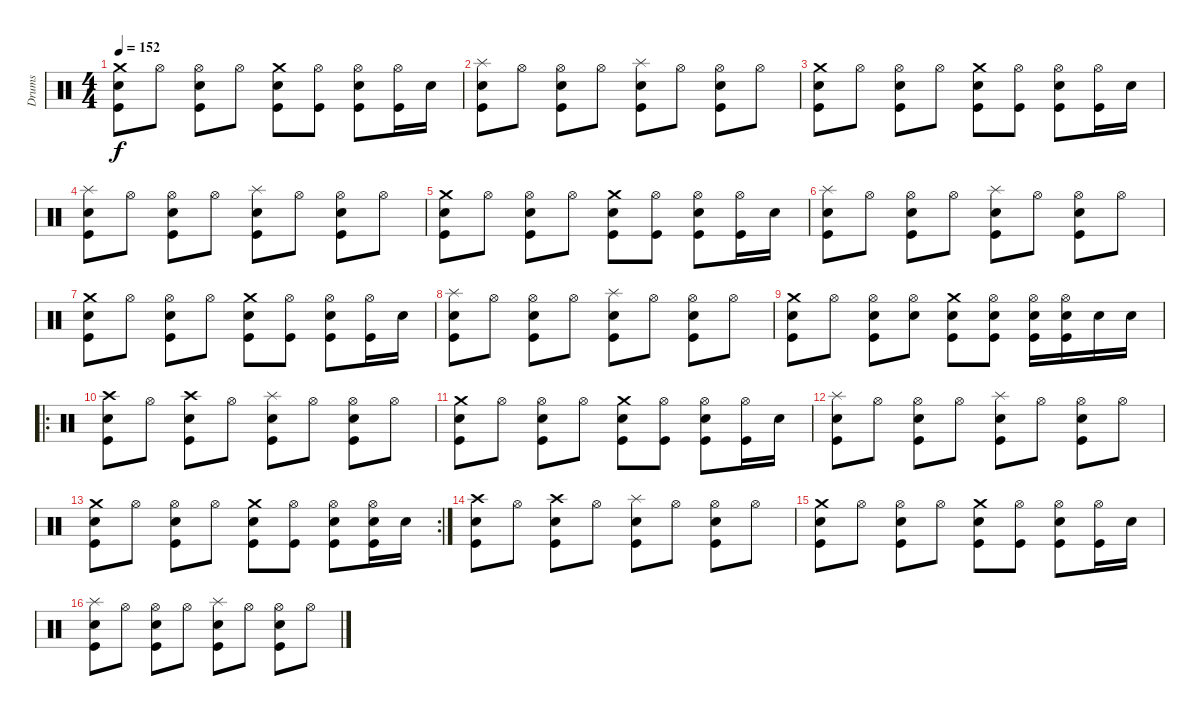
\track ("Drums" "Drums") {instrument percussion}
\staff {score}
\articulation defaults
\ts (4 4)
\tempo 152
\clef neutral
\ks c
("Crash medium (hit)" "Electric Snare (hit)" "Kick (hit)").8{dy f} "Hi-Hat (open)".8 ("Hi-Hat (open)" "Electric Snare (hit)" "Kick (hit)").8 "Hi-Hat (open)".8 ("Crash medium (hit)" "Electric Snare (hit)" "Kick (hit)").8 ("Hi-Hat (open)" "Kick (hit)").8 ("Hi-Hat (open)" "Electric Snare (hit)" "Kick (hit)").8 ("Hi-Hat (open)" "Kick (hit)").16 "Electric Snare (hit)".16 |
("Splash (hit)" "Electric Snare (hit)" "Kick (hit)").8 "Hi-Hat (open)".8 ("Hi-Hat (open)" "Electric Snare (hit)" "Kick (hit)").8 "Hi-Hat (open)".8 ("Splash (hit)" "Electric Snare (hit)" "Kick (hit)").8 "Hi-Hat (open)".8 ("Hi-Hat (open)" "Electric Snare (hit)" "Kick (hit)").8 "Hi-Hat (open)".8 |
("Crash medium (hit)" "Electric Snare (hit)" "Kick (hit)").8 "Hi-Hat (open)".8 ("Hi-Hat (open)" "Electric Snare (hit)" "Kick (hit)").8 "Hi-Hat (open)".8 ("Crash medium (hit)" "Electric Snare (hit)" "Kick (hit)").8 ("Hi-Hat (open)" "Kick (hit)").8 ("Hi-Hat (open)" "Electric Snare (hit)" "Kick (hit)").8 ("Hi-Hat (open)" "Kick (hit)").16 "Electric Snare (hit)".16 |
("Splash (hit)" "Electric Snare (hit)" "Kick (hit)").8 "Hi-Hat (open)".8 ("Hi-Hat (open)" "Electric Snare (hit)" "Kick (hit)").8 "Hi-Hat (open)".8 ("Splash (hit)" "Electric Snare (hit)" "Kick (hit)").8 "Hi-Hat (open)".8 ("Hi-Hat (open)" "Electric Snare (hit)" "Kick (hit)").8 "Hi-Hat (open)".8 |
("Crash medium (hit)" "Electric Snare (hit)" "Kick (hit)").8 "Hi-Hat (open)".8 ("Hi-Hat (open)" "Electric Snare (hit)" "Kick (hit)").8 "Hi-Hat (open)".8 ("Crash medium (hit)" "Electric Snare (hit)" "Kick (hit)").8 ("Hi-Hat (open)" "Kick (hit)").8 ("Hi-Hat (open)" "Electric Snare (hit)" "Kick (hit)").8 ("Hi-Hat (open)" "Kick (hit)").16 "Electric Snare (hit)".16 |
("Splash (hit)" "Electric Snare (hit)" "Kick (hit)").8 "Hi-Hat (open)".8 ("Hi-Hat (open)" "Electric Snare (hit)" "Kick (hit)").8 "Hi-Hat (open)".8 ("Splash (hit)" "Electric Snare (hit)" "Kick (hit)").8 "Hi-Hat (open)".8 ("Hi-Hat (open)" "Electric Snare (hit)" "Kick (hit)").8 "Hi-Hat (open)".8 |
("Crash medium (hit)" "Electric Snare (hit)" "Kick (hit)").8 "Hi-Hat (open)".8 ("Hi-Hat (open)" "Electric Snare (hit)" "Kick (hit)").8 "Hi-Hat (open)".8 ("Crash medium (hit)" "Electric Snare (hit)" "Kick (hit)").8 ("Hi-Hat (open)" "Kick (hit)").8 ("Hi-Hat (open)" "Electric Snare (hit)" "Kick (hit)").8 ("Hi-Hat (open)" "Kick (hit)").16 "Electric Snare (hit)".16 |
("Splash (hit)" "Electric Snare (hit)" "Kick (hit)").8 "Hi-Hat (open)".8 ("Hi-Hat (open)" "Electric Snare (hit)" "Kick (hit)").8 "Hi-Hat (open)".8 ("Splash (hit)" "Electric Snare (hit)" "Kick (hit)").8 "Hi-Hat (open)".8 ("Hi-Hat (open)" "Electric Snare (hit)" "Kick (hit)").8 "Hi-Hat (open)".8 |
("Crash medium (hit)" "Electric Snare (hit)" "Kick (hit)").8 "Hi-Hat (open)".8 ("Hi-Hat (open)" "Electric Snare (hit)" "Kick (hit)").8 ("Hi-Hat (open)" "Electric Snare (hit)").8 ("Crash medium (hit)" "Electric Snare (hit)" "Kick (hit)").8 ("Hi-Hat (open)" "Electric Snare (hit)" "Kick (hit)").8 ("Hi-Hat (open)" "Electric Snare (hit)" "Kick (hit)").16 ("Hi-Hat (open)" "Electric Snare (hit)" "Kick (hit)").16 "Electric Snare (hit)".16 "Electric Snare (hit)".16 |
\ro
("Crash high (hit)" "Electric Snare (hit)" "Kick (hit)").8 "Hi-Hat (open)".8 ("Crash high (hit)" "Electric Snare (hit)" "Kick (hit)").8 "Hi-Hat (open)".8 ("Splash (hit)" "Electric Snare (hit)" "Kick (hit)").8 "Hi-Hat (open)".8 ("Hi-Hat (open)" "Electric Snare (hit)" "Kick (hit)").8 "Hi-Hat (open)".8 |
("Crash medium (hit)" "Electric Snare (hit)" "Kick (hit)").8 "Hi-Hat (open)".8 ("Hi-Hat (open)" "Electric Snare (hit)" "Kick (hit)").8 "Hi-Hat (open)".8 ("Crash medium (hit)" "Electric Snare (hit)" "Kick (hit)").8 ("Hi-Hat (open)" "Kick (hit)").8 ("Hi-Hat (open)" "Electric Snare (hit)" "Kick (hit)").8 ("Hi-Hat (open)" "Kick (hit)").16 "Electric Snare (hit)".16 |
("Splash (hit)" "Electric Snare (hit)" "Kick (hit)").8 "Hi-Hat (open)".8 ("Hi-Hat (open)" "Electric Snare (hit)" "Kick (hit)").8 "Hi-Hat (open)".8 ("Splash (hit)" "Electric Snare (hit)" "Kick (hit)").8 "Hi-Hat (open)".8 ("Hi-Hat (open)" "Electric Snare (hit)" "Kick (hit)").8 "Hi-Hat (open)".8 |
\rc 2
("Crash medium (hit)" "Electric Snare (hit)" "Kick (hit)").8 "Hi-Hat (open)".8 ("Hi-Hat (open)" "Electric Snare (hit)" "Kick (hit)").8 "Hi-Hat (open)".8 ("Crash medium (hit)" "Electric Snare (hit)" "Kick (hit)").8 ("Hi-Hat (open)" "Kick (hit)").8 ("Hi-Hat (open)" "Electric Snare (hit)" "Kick (hit)").8 ("Hi-Hat (open)" "Electric Snare (hit)" "Kick (hit)").16 "Electric Snare (hit)".16 |
("Crash high (hit)" "Electric Snare (hit)" "Kick (hit)").8 "Hi-Hat (open)".8 ("Crash high (hit)" "Electric Snare (hit)" "Kick (hit)").8 "Hi-Hat (open)".8 ("Splash (hit)" "Electric Snare (hit)" "Kick (hit)").8 "Hi-Hat (open)".8 ("Hi-Hat (open)" "Electric Snare (hit)" "Kick (hit)").8 "Hi-Hat (open)".8 |
("Crash medium (hit)" "Electric Snare (hit)" "Kick (hit)").8 "Hi-Hat (open)".8 ("Hi-Hat (open)" "Electric Snare (hit)" "Kick (hit)").8 "Hi-Hat (open)".8 ("Crash medium (hit)" "Electric Snare (hit)" "Kick (hit)").8 ("Hi-Hat (open)" "Kick (hit)").8 ("Hi-Hat (open)" "Electric Snare (hit)" "Kick (hit)").8 ("Hi-Hat (open)" "Kick (hit)").16 "Electric Snare (hit)".16 |
("Splash (hit)" "Electric Snare (hit)" "Kick (hit)").8 "Hi-Hat (open)".8 ("Hi-Hat (open)" "Electric Snare (hit)" "Kick (hit)").8 "Hi-Hat (open)".8 ("Splash (hit)" "Electric Snare (hit)" "Kick (hit)").8 "Hi-Hat (open)".8 ("Hi-Hat (open)" "Electric Snare (hit)" "Kick (hit)").8 "Hi-Hat (open)".8
